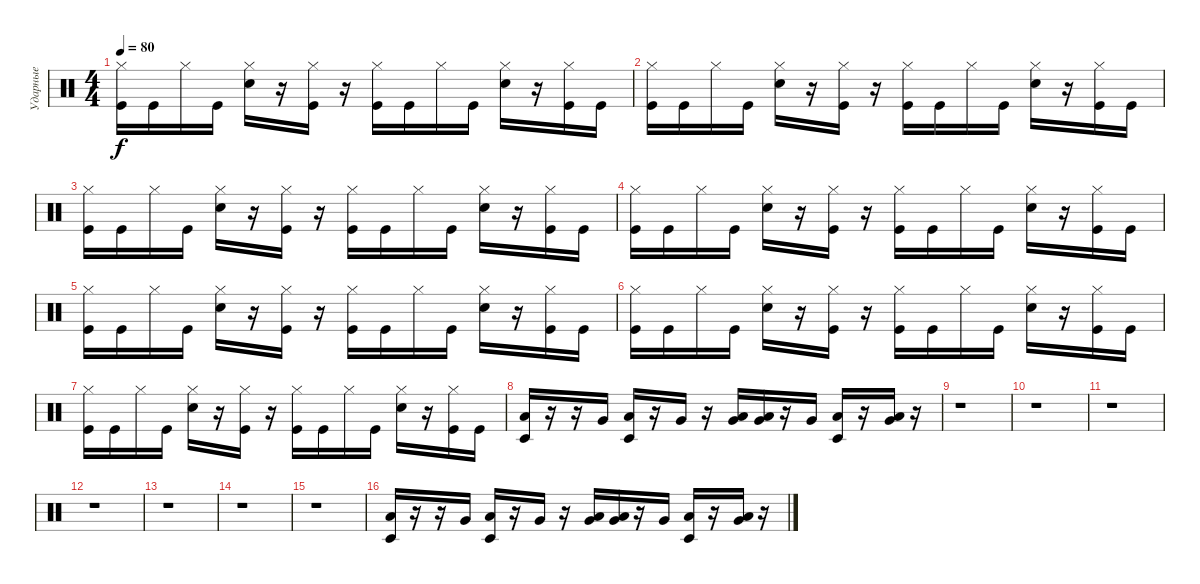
\track ("Ударные" "Ударные") {instrument percussion}
\staff {score}
\articulation defaults
\ts (4 4)
\tempo 80
\clef neutral
\ks c
("Hi-Hat (closed)" "Kick (hit)").16{dy f} "Kick (hit)".16 "Hi-Hat (closed)".16 "Kick (hit)".16 ("Hi-Hat (closed)" "Electric Snare (hit)").16 r.16 ("Hi-Hat (closed)" "Kick (hit)").16 r.16 ("Hi-Hat (closed)" "Kick (hit)").16 "Kick (hit)".16 "Hi-Hat (closed)".16 "Kick (hit)".16 ("Hi-Hat (closed)" "Electric Snare (hit)").16 r.16 ("Hi-Hat (closed)" "Kick (hit)").16 "Kick (hit)".16 |
("Hi-Hat (closed)" "Kick (hit)").16 "Kick (hit)".16 "Hi-Hat (closed)".16 "Kick (hit)".16 ("Hi-Hat (closed)" "Electric Snare (hit)").16 r.16 ("Hi-Hat (closed)" "Kick (hit)").16 r.16 ("Hi-Hat (closed)" "Kick (hit)").16 "Kick (hit)".16 "Hi-Hat (closed)".16 "Kick (hit)".16 ("Hi-Hat (closed)" "Electric Snare (hit)").16 r.16 ("Hi-Hat (closed)" "Kick (hit)").16 "Kick (hit)".16 |
("Hi-Hat (closed)" "Kick (hit)").16 "Kick (hit)".16 "Hi-Hat (closed)".16 "Kick (hit)".16 ("Hi-Hat (closed)" "Electric Snare (hit)").16 r.16 ("Hi-Hat (closed)" "Kick (hit)").16 r.16 ("Hi-Hat (closed)" "Kick (hit)").16 "Kick (hit)".16 "Hi-Hat (closed)".16 "Kick (hit)".16 ("Hi-Hat (closed)" "Electric Snare (hit)").16 r.16 ("Hi-Hat (closed)" "Kick (hit)").16 "Kick (hit)".16 |
("Hi-Hat (closed)" "Kick (hit)").16 "Kick (hit)".16 "Hi-Hat (closed)".16 "Kick (hit)".16 ("Hi-Hat (closed)" "Electric Snare (hit)").16 r.16 ("Hi-Hat (closed)" "Kick (hit)").16 r.16 ("Hi-Hat (closed)" "Kick (hit)").16 "Kick (hit)".16 "Hi-Hat (closed)".16 "Kick (hit)".16 ("Hi-Hat (closed)" "Electric Snare (hit)").16 r.16 ("Hi-Hat (closed)" "Kick (hit)").16 "Kick (hit)".16 |
("Hi-Hat (closed)" "Kick (hit)").16 "Kick (hit)".16 "Hi-Hat (closed)".16 "Kick (hit)".16 ("Hi-Hat (closed)" "Electric Snare (hit)").16 r.16 ("Hi-Hat (closed)" "Kick (hit)").16 r.16 ("Hi-Hat (closed)" "Kick (hit)").16 "Kick (hit)".16 "Hi-Hat (closed)".16 "Kick (hit)".16 ("Hi-Hat (closed)" "Electric Snare (hit)").16 r.16 ("Hi-Hat (closed)" "Kick (hit)").16 "Kick (hit)".16 |
("Hi-Hat (closed)" "Kick (hit)").16 "Kick (hit)".16 "Hi-Hat (closed)".16 "Kick (hit)".16 ("Hi-Hat (closed)" "Electric Snare (hit)").16 r.16 ("Hi-Hat (closed)" "Kick (hit)").16 r.16 ("Hi-Hat (closed)" "Kick (hit)").16 "Kick (hit)".16 "Hi-Hat (closed)".16 "Kick (hit)".16 ("Hi-Hat (closed)" "Electric Snare (hit)").16 r.16 ("Hi-Hat (closed)" "Kick (hit)").16 "Kick (hit)".16 |
("Hi-Hat (closed)" "Kick (hit)").16 "Kick (hit)".16 "Hi-Hat (closed)".16 "Kick (hit)".16 ("Hi-Hat (closed)" "Electric Snare (hit)").16 r.16 ("Hi-Hat (closed)" "Kick (hit)").16 r.16 ("Hi-Hat (closed)" "Kick (hit)").16 "Kick (hit)".16 "Hi-Hat (closed)".16 "Kick (hit)".16 ("Hi-Hat (closed)" "Electric Snare (hit)").16 r.16 ("Hi-Hat (closed)" "Kick (hit)").16 "Kick (hit)".16 |
("Timbale low (hit)" "Low Floor Tom (hit)").16 r.16 r.16 "Very Low Tom (hit)".16 ("Timbale low (hit)" "Low Floor Tom (hit)").16 r.16 "Very Low Tom (hit)".16 r.16 ("Low Floor Tom (hit)" "Very Low Tom (hit)").16 ("Low Floor Tom (hit)" "Very Low Tom (hit)").16 r.16 "Very Low Tom (hit)".16 ("Timbale low (hit)" "Low Floor Tom (hit)").16 r.16 ("Low Floor Tom (hit)" "Very Low Tom (hit)").16 r.16 |
r.1 |
r.1 |
r.1 |
r.1 |
r.1 |
r.1 |
r.1 |
("Timbale low (hit)" "Low Floor Tom (hit)").16 r.16 r.16 "Very Low Tom (hit)".16 ("Timbale low (hit)" "Low Floor Tom (hit)").16 r.16 "Very Low Tom (hit)".16 r.16 ("Low Floor Tom (hit)" "Very Low Tom (hit)").16 ("Low Floor Tom (hit)" "Very Low Tom (hit)").16 r.16 "Very Low Tom (hit)".16 ("Timbale low (hit)" "Low Floor Tom (hit)").16 r.16 ("Low Floor Tom (hit)" "Very Low Tom (hit)").16 r.16
